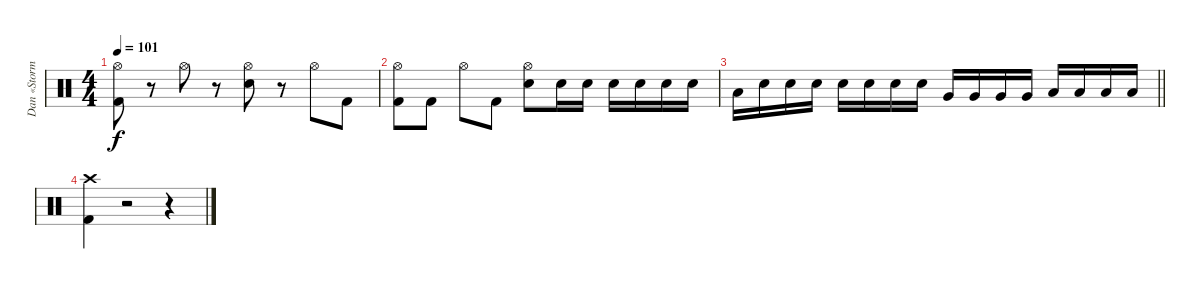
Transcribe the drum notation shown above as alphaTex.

\track ("Dan «Storm» Mullins" "Dan «Storm") {instrument percussion}
\staff {score}
\articulation defaults
\ts (4 4)
\tempo 101
\clef neutral
\ks c
("Hi-Hat (open)" "Kick (hit) 2").8{dy f} r.8 "Hi-Hat (open)".8 r.8 ("Hi-Hat (open)" "Electric Snare (hit)").8 r.8 "Hi-Hat (open)".8 "Kick (hit) 2".8 |
("Hi-Hat (open)" "Kick (hit) 2").8 "Kick (hit) 2".8 "Hi-Hat (open)".8 "Kick (hit) 2".8 ("Hi-Hat (open)" "Electric Snare (hit)").8 "Electric Snare (hit)".16 "Electric Snare (hit)".16 "Electric Snare (hit)".16 "Electric Snare (hit)".16 "Electric Snare (hit)".16 "Electric Snare (hit)".16 |
\barLineRight lightlight "Low Tom (hit)".16 "Electric Snare (hit)".16 "Electric Snare (hit)".16 "Electric Snare (hit)".16 "Electric Snare (hit)".16 "Electric Snare (hit)".16 "Electric Snare (hit)".16 "Electric Snare (hit)".16 "Very Low Tom (hit)".16 "Very Low Tom (hit)".16 "Very Low Tom (hit)".16 "Very Low Tom (hit)".16 "Low Floor Tom (hit)".16 "Low Floor Tom (hit)".16 "Low Floor Tom (hit)".16 "Low Floor Tom (hit)".16
|
("Crash high (hit)" "Kick (hit) 2").4 r.2 r.4
